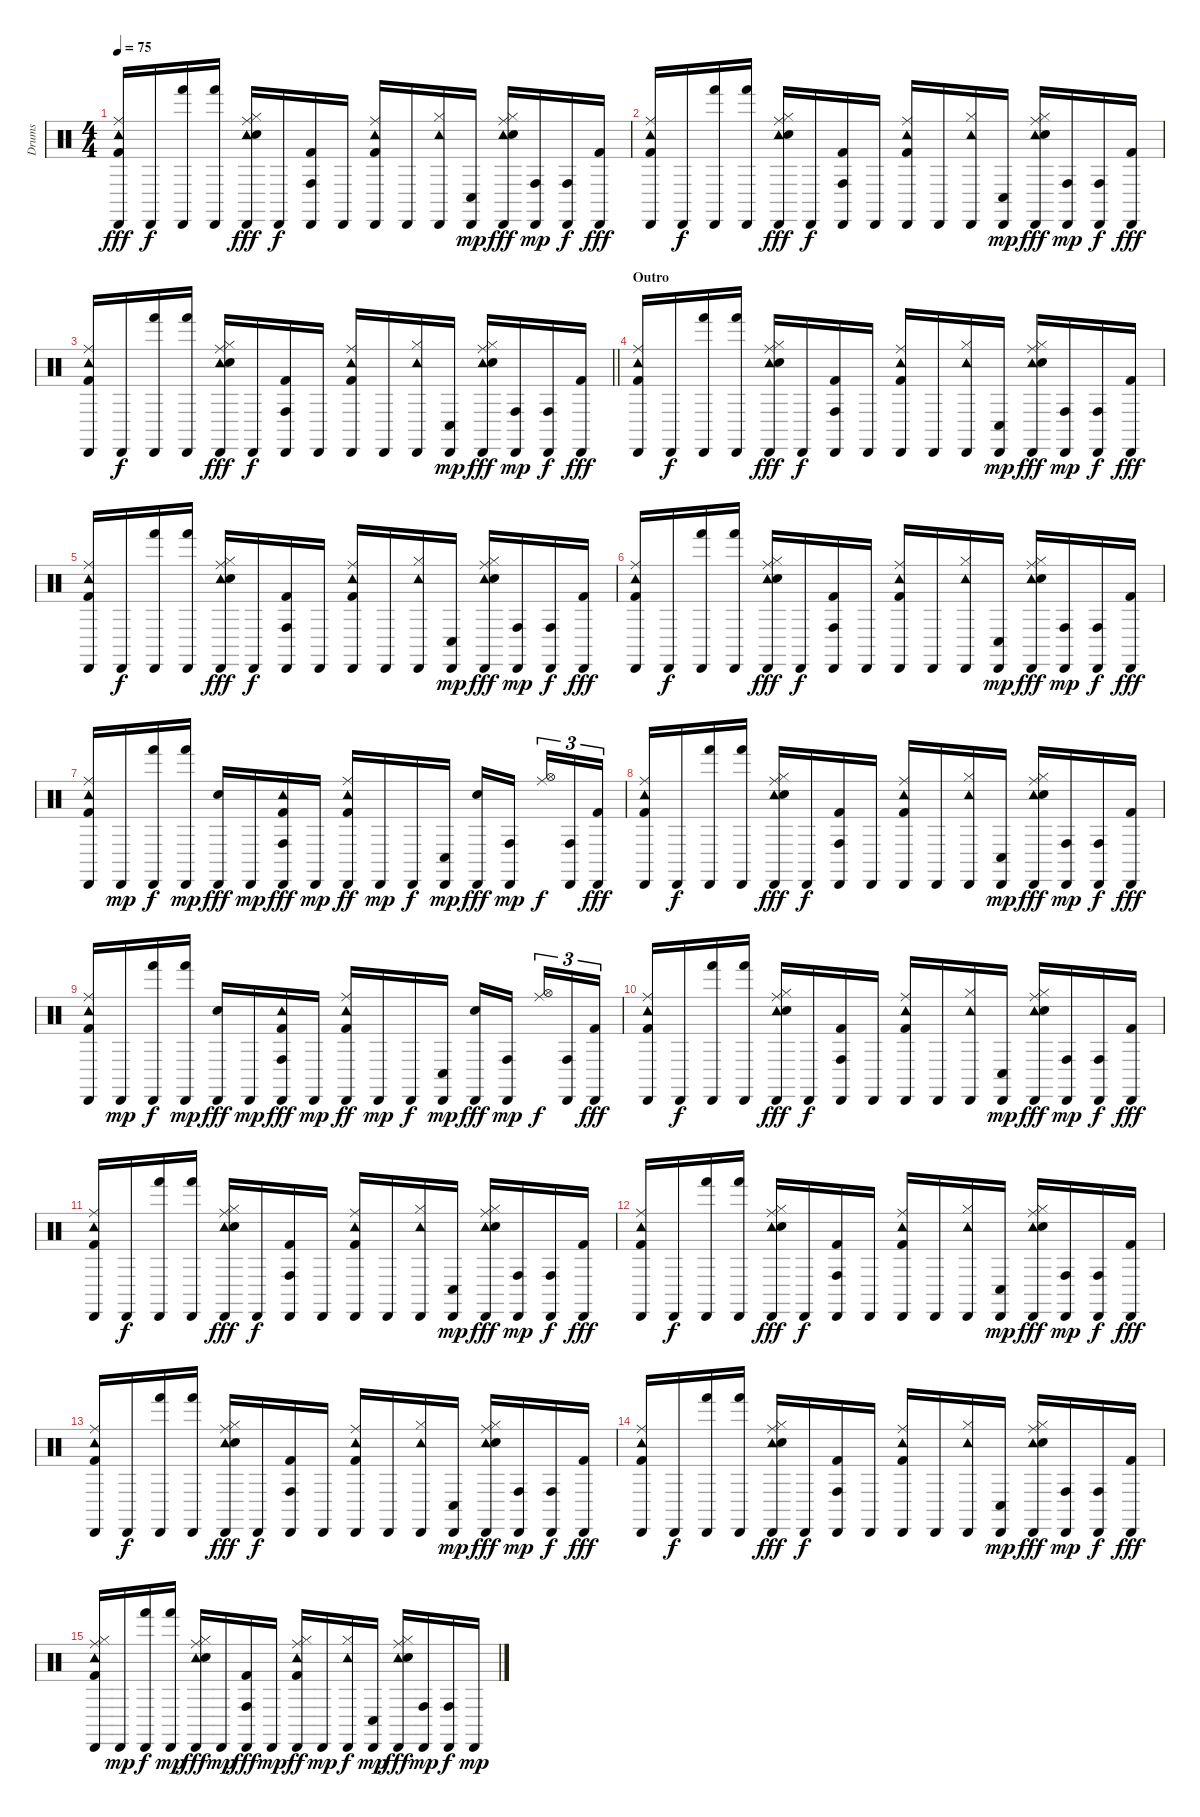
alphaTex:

\track ("Drums" "Drums") {instrument percussion}
\staff {score}
\articulation defaults
\ts (4 4)
\tempo 75
\clef neutral
\ks c
("Ride (middle)" "Tambourine (hit)" "Kick (hit) 2" "Cabasa (hit)").16{dy fff} "Cabasa (hit)".16{dy f} ("Hand (hit)" "Cabasa (hit)").16 ("Hand (hit)" "Cabasa (hit)").16 ("Cabasa (hit)" "Hi-Hat (closed)" "Tambourine (hit)" "Snare (hit) 2" "Ride (middle)").16{dy fff} "Cabasa (hit)".16{dy f} ("Conga high (hit)" "Kick (hit) 2" "Cabasa (hit)").16 "Cabasa (hit)".16 ("Ride (middle)" "Tambourine (hit)" "Kick (hit) 2" "Cabasa (hit)").16 "Cabasa (hit)".16 ("Cabasa (hit)" "Hi-Hat (closed)" "Tambourine (hit)").16 ("Cabasa (hit)" "Conga low (hit)").16{dy mp} ("Cabasa (hit)" "Hi-Hat (closed)" "Tambourine (hit)" "Snare (hit) 2" "Ride (middle)").16{dy fff} ("Cabasa (hit)" "Conga high (hit)").16{dy mp} ("Cabasa (hit)" "Conga high (hit)").16{dy f} ("Cabasa (hit)" "Kick (hit) 2").16{dy fff} |
("Ride (middle)" "Tambourine (hit)" "Kick (hit) 2" "Cabasa (hit)").16 "Cabasa (hit)".16{dy f} ("Hand (hit)" "Cabasa (hit)").16 ("Hand (hit)" "Cabasa (hit)").16 ("Cabasa (hit)" "Hi-Hat (closed)" "Tambourine (hit)" "Snare (hit) 2" "Ride (middle)").16{dy fff} "Cabasa (hit)".16{dy f} ("Conga high (hit)" "Kick (hit) 2" "Cabasa (hit)").16 "Cabasa (hit)".16 ("Ride (middle)" "Tambourine (hit)" "Kick (hit) 2" "Cabasa (hit)").16 "Cabasa (hit)".16 ("Cabasa (hit)" "Hi-Hat (closed)" "Tambourine (hit)").16 ("Cabasa (hit)" "Conga low (hit)").16{dy mp} ("Cabasa (hit)" "Hi-Hat (closed)" "Tambourine (hit)" "Snare (hit) 2" "Ride (middle)").16{dy fff} ("Cabasa (hit)" "Conga high (hit)").16{dy mp} ("Cabasa (hit)" "Conga high (hit)").16{dy f} ("Cabasa (hit)" "Kick (hit) 2").16{dy fff} |
\barLineRight lightlight
("Ride (middle)" "Tambourine (hit)" "Kick (hit) 2" "Cabasa (hit)").16 "Cabasa (hit)".16{dy f} ("Hand (hit)" "Cabasa (hit)").16 ("Hand (hit)" "Cabasa (hit)").16 ("Cabasa (hit)" "Hi-Hat (closed)" "Tambourine (hit)" "Snare (hit) 2" "Ride (middle)").16{dy fff} "Cabasa (hit)".16{dy f} ("Conga high (hit)" "Kick (hit) 2" "Cabasa (hit)").16 "Cabasa (hit)".16 ("Ride (middle)" "Tambourine (hit)" "Kick (hit) 2" "Cabasa (hit)").16 "Cabasa (hit)".16 ("Cabasa (hit)" "Hi-Hat (closed)" "Tambourine (hit)").16 ("Cabasa (hit)" "Conga low (hit)").16{dy mp} ("Cabasa (hit)" "Hi-Hat (closed)" "Tambourine (hit)" "Snare (hit) 2" "Ride (middle)").16{dy fff} ("Cabasa (hit)" "Conga high (hit)").16{dy mp} ("Cabasa (hit)" "Conga high (hit)").16{dy f} ("Cabasa (hit)" "Kick (hit) 2").16{dy fff} |
\section ("" "Outro")
("Ride (middle)" "Tambourine (hit)" "Kick (hit) 2" "Cabasa (hit)").16 "Cabasa (hit)".16{dy f} ("Hand (hit)" "Cabasa (hit)").16 ("Hand (hit)" "Cabasa (hit)").16 ("Cabasa (hit)" "Hi-Hat (closed)" "Tambourine (hit)" "Snare (hit) 2" "Ride (middle)").16{dy fff} "Cabasa (hit)".16{dy f} ("Conga high (hit)" "Kick (hit) 2" "Cabasa (hit)").16 "Cabasa (hit)".16 ("Ride (middle)" "Tambourine (hit)" "Kick (hit) 2" "Cabasa (hit)").16 "Cabasa (hit)".16 ("Cabasa (hit)" "Hi-Hat (closed)" "Tambourine (hit)").16 ("Cabasa (hit)" "Conga low (hit)").16{dy mp} ("Cabasa (hit)" "Hi-Hat (closed)" "Tambourine (hit)" "Snare (hit) 2" "Ride (middle)").16{dy fff} ("Cabasa (hit)" "Conga high (hit)").16{dy mp} ("Cabasa (hit)" "Conga high (hit)").16{dy f} ("Cabasa (hit)" "Kick (hit) 2").16{dy fff} |
("Ride (middle)" "Tambourine (hit)" "Kick (hit) 2" "Cabasa (hit)").16 "Cabasa (hit)".16{dy f} ("Hand (hit)" "Cabasa (hit)").16 ("Hand (hit)" "Cabasa (hit)").16 ("Cabasa (hit)" "Hi-Hat (closed)" "Tambourine (hit)" "Snare (hit) 2" "Ride (middle)").16{dy fff} "Cabasa (hit)".16{dy f} ("Conga high (hit)" "Kick (hit) 2" "Cabasa (hit)").16 "Cabasa (hit)".16 ("Ride (middle)" "Tambourine (hit)" "Kick (hit) 2" "Cabasa (hit)").16 "Cabasa (hit)".16 ("Cabasa (hit)" "Hi-Hat (closed)" "Tambourine (hit)").16 ("Cabasa (hit)" "Conga low (hit)").16{dy mp} ("Cabasa (hit)" "Hi-Hat (closed)" "Tambourine (hit)" "Snare (hit) 2" "Ride (middle)").16{dy fff} ("Cabasa (hit)" "Conga high (hit)").16{dy mp} ("Cabasa (hit)" "Conga high (hit)").16{dy f} ("Cabasa (hit)" "Kick (hit) 2").16{dy fff} |
("Ride (middle)" "Tambourine (hit)" "Kick (hit) 2" "Cabasa (hit)").16 "Cabasa (hit)".16{dy f} ("Hand (hit)" "Cabasa (hit)").16 ("Hand (hit)" "Cabasa (hit)").16 ("Cabasa (hit)" "Hi-Hat (closed)" "Tambourine (hit)" "Snare (hit) 2" "Ride (middle)").16{dy fff} "Cabasa (hit)".16{dy f} ("Conga high (hit)" "Kick (hit) 2" "Cabasa (hit)").16 "Cabasa (hit)".16 ("Ride (middle)" "Tambourine (hit)" "Kick (hit) 2" "Cabasa (hit)").16 "Cabasa (hit)".16 ("Cabasa (hit)" "Hi-Hat (closed)" "Tambourine (hit)").16 ("Cabasa (hit)" "Conga low (hit)").16{dy mp} ("Cabasa (hit)" "Hi-Hat (closed)" "Tambourine (hit)" "Snare (hit) 2" "Ride (middle)").16{dy fff} ("Cabasa (hit)" "Conga high (hit)").16{dy mp} ("Cabasa (hit)" "Conga high (hit)").16{dy f} ("Cabasa (hit)" "Kick (hit) 2").16{dy fff} |
("Cabasa (hit)" "Tambourine (hit)" "Kick (hit) 2" "Ride (middle)").16 "Cabasa (hit)".16{dy mp} ("Cabasa (hit)" "Hand (hit)").16{dy f} ("Cabasa (hit)" "Hand (hit)").16{dy mp} ("Cabasa (hit)" "Snare (hit) 2").16{dy fff} "Cabasa (hit)".16{dy mp} ("Cabasa (hit)" "Conga high (hit)" "Tambourine (hit)" "Kick (hit) 2").16{dy fff} "Cabasa (hit)".16{dy mp} ("Tambourine (hit)" "Kick (hit) 2" "Ride (middle)" "Cabasa (hit)").16{dy ff} "Cabasa (hit)".16{dy mp} "Cabasa (hit)".16{dy f} ("Cabasa (hit)" "Conga low (hit)").16{dy mp} ("Cabasa (hit)" "Snare (hit) 2").16{dy fff} ("Cabasa (hit)" "Conga high (hit)").16{dy mp beam splitsecondary} ("Ride (middle)" "Hi-Hat (open)").16{tu (3 2) dy f} ("Cabasa (hit)" "Conga high (hit)").16{tu (3 2)} ("Cabasa (hit)" "Kick (hit) 2").16{tu (3 2) dy fff} |
("Ride (middle)" "Tambourine (hit)" "Kick (hit) 2" "Cabasa (hit)").16 "Cabasa (hit)".16{dy f} ("Hand (hit)" "Cabasa (hit)").16 ("Hand (hit)" "Cabasa (hit)").16 ("Cabasa (hit)" "Hi-Hat (closed)" "Tambourine (hit)" "Snare (hit) 2" "Ride (middle)").16{dy fff} "Cabasa (hit)".16{dy f} ("Conga high (hit)" "Kick (hit) 2" "Cabasa (hit)").16 "Cabasa (hit)".16 ("Ride (middle)" "Tambourine (hit)" "Kick (hit) 2" "Cabasa (hit)").16 "Cabasa (hit)".16 ("Cabasa (hit)" "Hi-Hat (closed)" "Tambourine (hit)").16 ("Cabasa (hit)" "Conga low (hit)").16{dy mp} ("Cabasa (hit)" "Hi-Hat (closed)" "Tambourine (hit)" "Snare (hit) 2" "Ride (middle)").16{dy fff} ("Cabasa (hit)" "Conga high (hit)").16{dy mp} ("Cabasa (hit)" "Conga high (hit)").16{dy f} ("Cabasa (hit)" "Kick (hit) 2").16{dy fff} |
("Cabasa (hit)" "Tambourine (hit)" "Kick (hit) 2" "Ride (middle)").16 "Cabasa (hit)".16{dy mp} ("Cabasa (hit)" "Hand (hit)").16{dy f} ("Cabasa (hit)" "Hand (hit)").16{dy mp} ("Cabasa (hit)" "Snare (hit) 2").16{dy fff} "Cabasa (hit)".16{dy mp} ("Cabasa (hit)" "Conga high (hit)" "Tambourine (hit)" "Kick (hit) 2").16{dy fff} "Cabasa (hit)".16{dy mp} ("Tambourine (hit)" "Kick (hit) 2" "Ride (middle)" "Cabasa (hit)").16{dy ff} "Cabasa (hit)".16{dy mp} "Cabasa (hit)".16{dy f} ("Cabasa (hit)" "Conga low (hit)").16{dy mp} ("Cabasa (hit)" "Snare (hit) 2").16{dy fff} ("Cabasa (hit)" "Conga high (hit)").16{dy mp beam splitsecondary} ("Ride (middle)" "Hi-Hat (open)").16{tu (3 2) dy f} ("Cabasa (hit)" "Conga high (hit)").16{tu (3 2)} ("Cabasa (hit)" "Kick (hit) 2").16{tu (3 2) dy fff} |
("Ride (middle)" "Tambourine (hit)" "Kick (hit) 2" "Cabasa (hit)").16 "Cabasa (hit)".16{dy f} ("Hand (hit)" "Cabasa (hit)").16 ("Hand (hit)" "Cabasa (hit)").16 ("Cabasa (hit)" "Hi-Hat (closed)" "Tambourine (hit)" "Snare (hit) 2" "Ride (middle)").16{dy fff} "Cabasa (hit)".16{dy f} ("Conga high (hit)" "Kick (hit) 2" "Cabasa (hit)").16 "Cabasa (hit)".16 ("Ride (middle)" "Tambourine (hit)" "Kick (hit) 2" "Cabasa (hit)").16 "Cabasa (hit)".16 ("Cabasa (hit)" "Hi-Hat (closed)" "Tambourine (hit)").16 ("Cabasa (hit)" "Conga low (hit)").16{dy mp} ("Cabasa (hit)" "Hi-Hat (closed)" "Tambourine (hit)" "Snare (hit) 2" "Ride (middle)").16{dy fff} ("Cabasa (hit)" "Conga high (hit)").16{dy mp} ("Cabasa (hit)" "Conga high (hit)").16{dy f} ("Cabasa (hit)" "Kick (hit) 2").16{dy fff} |
("Ride (middle)" "Tambourine (hit)" "Kick (hit) 2" "Cabasa (hit)").16 "Cabasa (hit)".16{dy f} ("Hand (hit)" "Cabasa (hit)").16 ("Hand (hit)" "Cabasa (hit)").16 ("Cabasa (hit)" "Hi-Hat (closed)" "Tambourine (hit)" "Snare (hit) 2" "Ride (middle)").16{dy fff} "Cabasa (hit)".16{dy f} ("Conga high (hit)" "Kick (hit) 2" "Cabasa (hit)").16 "Cabasa (hit)".16 ("Ride (middle)" "Tambourine (hit)" "Kick (hit) 2" "Cabasa (hit)").16 "Cabasa (hit)".16 ("Cabasa (hit)" "Hi-Hat (closed)" "Tambourine (hit)").16 ("Cabasa (hit)" "Conga low (hit)").16{dy mp} ("Cabasa (hit)" "Hi-Hat (closed)" "Tambourine (hit)" "Snare (hit) 2" "Ride (middle)").16{dy fff} ("Cabasa (hit)" "Conga high (hit)").16{dy mp} ("Cabasa (hit)" "Conga high (hit)").16{dy f} ("Cabasa (hit)" "Kick (hit) 2").16{dy fff} |
("Ride (middle)" "Tambourine (hit)" "Kick (hit) 2" "Cabasa (hit)").16{volume 0} "Cabasa (hit)".16{dy f} ("Hand (hit)" "Cabasa (hit)").16 ("Hand (hit)" "Cabasa (hit)").16 ("Cabasa (hit)" "Hi-Hat (closed)" "Tambourine (hit)" "Snare (hit) 2" "Ride (middle)").16{dy fff} "Cabasa (hit)".16{dy f} ("Conga high (hit)" "Kick (hit) 2" "Cabasa (hit)").16 "Cabasa (hit)".16 ("Ride (middle)" "Tambourine (hit)" "Kick (hit) 2" "Cabasa (hit)").16 "Cabasa (hit)".16 ("Cabasa (hit)" "Hi-Hat (closed)" "Tambourine (hit)").16 ("Cabasa (hit)" "Conga low (hit)").16{dy mp} ("Cabasa (hit)" "Hi-Hat (closed)" "Tambourine (hit)" "Snare (hit) 2" "Ride (middle)").16{dy fff} ("Cabasa (hit)" "Conga high (hit)").16{dy mp} ("Cabasa (hit)" "Conga high (hit)").16{dy f} ("Cabasa (hit)" "Kick (hit) 2").16{dy fff} |
("Ride (middle)" "Tambourine (hit)" "Kick (hit) 2" "Cabasa (hit)").16 "Cabasa (hit)".16{dy f} ("Hand (hit)" "Cabasa (hit)").16 ("Hand (hit)" "Cabasa (hit)").16 ("Cabasa (hit)" "Hi-Hat (closed)" "Tambourine (hit)" "Snare (hit) 2" "Ride (middle)").16{dy fff} "Cabasa (hit)".16{dy f} ("Conga high (hit)" "Kick (hit) 2" "Cabasa (hit)").16 "Cabasa (hit)".16 ("Ride (middle)" "Tambourine (hit)" "Kick (hit) 2" "Cabasa (hit)").16 "Cabasa (hit)".16 ("Cabasa (hit)" "Hi-Hat (closed)" "Tambourine (hit)").16 ("Cabasa (hit)" "Conga low (hit)").16{dy mp} ("Cabasa (hit)" "Hi-Hat (closed)" "Tambourine (hit)" "Snare (hit) 2" "Ride (middle)").16{dy fff} ("Cabasa (hit)" "Conga high (hit)").16{dy mp} ("Cabasa (hit)" "Conga high (hit)").16{dy f} ("Cabasa (hit)" "Kick (hit) 2").16{dy fff} |
("Ride (middle)" "Tambourine (hit)" "Kick (hit) 2" "Cabasa (hit)").16 "Cabasa (hit)".16{dy f} ("Hand (hit)" "Cabasa (hit)").16 ("Hand (hit)" "Cabasa (hit)").16 ("Cabasa (hit)" "Hi-Hat (closed)" "Tambourine (hit)" "Snare (hit) 2" "Ride (middle)").16{dy fff} "Cabasa (hit)".16{dy f} ("Conga high (hit)" "Kick (hit) 2" "Cabasa (hit)").16 "Cabasa (hit)".16 ("Ride (middle)" "Tambourine (hit)" "Kick (hit) 2" "Cabasa (hit)").16 "Cabasa (hit)".16 ("Cabasa (hit)" "Hi-Hat (closed)" "Tambourine (hit)").16 ("Cabasa (hit)" "Conga low (hit)").16{dy mp} ("Cabasa (hit)" "Hi-Hat (closed)" "Tambourine (hit)" "Snare (hit) 2" "Ride (middle)").16{dy fff} ("Cabasa (hit)" "Conga high (hit)").16{dy mp} ("Cabasa (hit)" "Conga high (hit)").16{dy f} ("Cabasa (hit)" "Kick (hit) 2").16{dy fff} |
("Cabasa (hit)" "Tambourine (hit)" "Kick (hit) 2" "Ride (middle)" "Hi-Hat (closed)").16 "Cabasa (hit)".16{dy mp} ("Cabasa (hit)" "Hand (hit)").16{dy f} ("Cabasa (hit)" "Hand (hit)").16{dy mp} ("Cabasa (hit)" "Hi-Hat (closed)" "Tambourine (hit)" "Snare (hit) 2" "Ride (middle)").16{dy fff} "Cabasa (hit)".16{dy mp} ("Cabasa (hit)" "Conga high (hit)" "Kick (hit) 2").16{dy fff} "Cabasa (hit)".16{dy mp} ("Tambourine (hit)" "Kick (hit) 2" "Ride (middle)" "Cabasa (hit)" "Hi-Hat (closed)").16{dy ff} "Cabasa (hit)".16{dy mp} ("Cabasa (hit)" "Hi-Hat (closed)" "Tambourine (hit)").16{dy f} ("Cabasa (hit)" "Conga low (hit)").16{dy mp} ("Cabasa (hit)" "Hi-Hat (closed)" "Tambourine (hit)" "Snare (hit) 2" "Ride (middle)").16{dy fff} ("Cabasa (hit)" "Conga high (hit)").16{dy mp} ("Cabasa (hit)" "Conga high (hit)").16{dy f} "Cabasa (hit)".16{dy mp}
